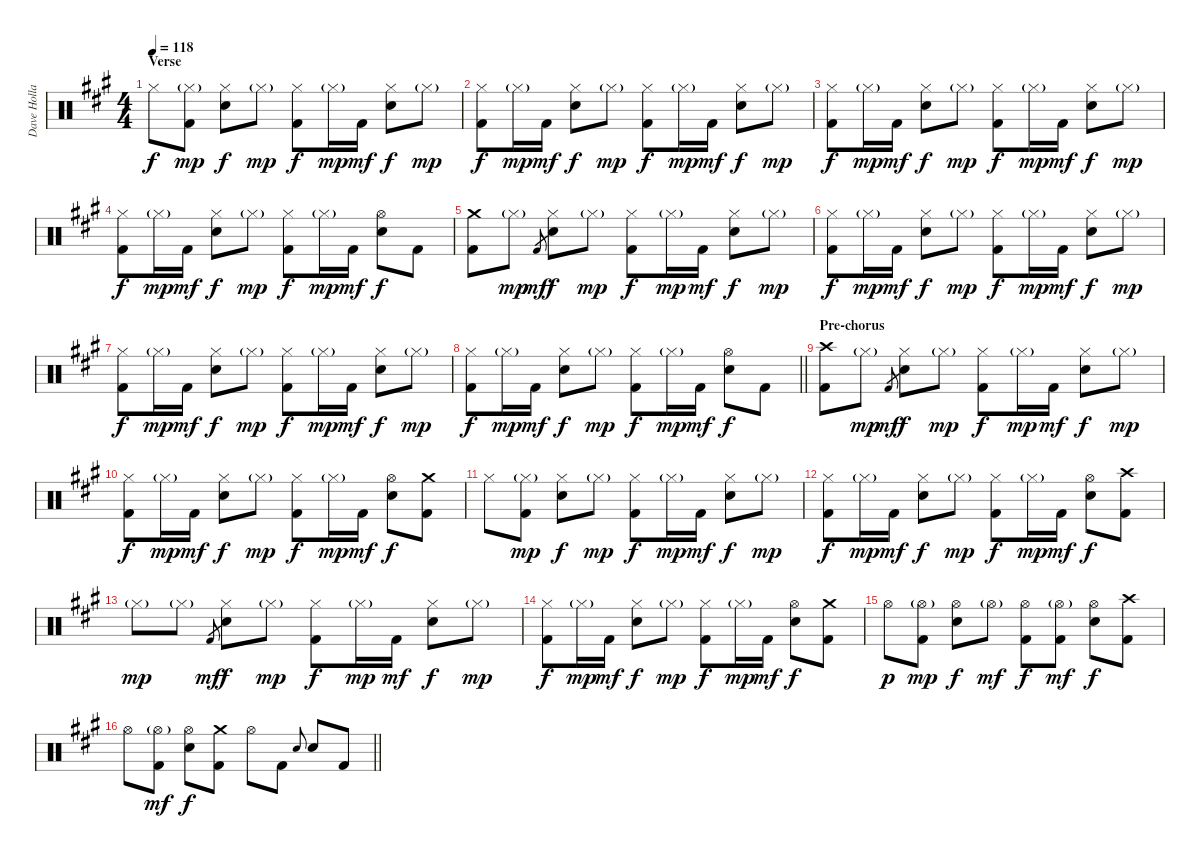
\track ("Dave Holland" "Dave Holla") {instrument percussion}
\staff {score}
\articulation defaults
\ts (4 4)
\section ("" "Verse")
\tempo 118
\clef neutral
\ks f#minor "Hi-Hat (closed)".8{dy f}
("Hi-Hat (closed)"{g} "Kick (hit) 2").8{dy mp} ("Hi-Hat (closed)" "Snare (hit) 2").8{dy f} "Hi-Hat (closed)"{g}.8{dy mp} ("Hi-Hat (closed)" "Kick (hit) 2").8{dy f} "Hi-Hat (closed)"{g}.16{dy mp} "Kick (hit) 2".16{dy mf} ("Hi-Hat (closed)" "Snare (hit) 2").8{dy f} "Hi-Hat (closed)"{g}.8{dy mp} |
("Hi-Hat (closed)" "Kick (hit) 2").8{dy f} "Hi-Hat (closed)"{g}.16{dy mp} "Kick (hit) 2".16{dy mf} ("Hi-Hat (closed)" "Snare (hit) 2").8{dy f} "Hi-Hat (closed)"{g}.8{dy mp} ("Hi-Hat (closed)" "Kick (hit) 2").8{dy f} "Hi-Hat (closed)"{g}.16{dy mp} "Kick (hit) 2".16{dy mf} ("Hi-Hat (closed)" "Snare (hit) 2").8{dy f} "Hi-Hat (closed)"{g}.8{dy mp} |
("Hi-Hat (closed)" "Kick (hit) 2").8{dy f} "Hi-Hat (closed)"{g}.16{dy mp} "Kick (hit) 2".16{dy mf} ("Hi-Hat (closed)" "Snare (hit) 2").8{dy f} "Hi-Hat (closed)"{g}.8{dy mp} ("Hi-Hat (closed)" "Kick (hit) 2").8{dy f} "Hi-Hat (closed)"{g}.16{dy mp} "Kick (hit) 2".16{dy mf} ("Hi-Hat (closed)" "Snare (hit) 2").8{dy f} "Hi-Hat (closed)"{g}.8{dy mp} |
("Hi-Hat (closed)" "Kick (hit) 2").8{dy f} "Hi-Hat (closed)"{g}.16{dy mp} "Kick (hit) 2".16{dy mf} ("Hi-Hat (closed)" "Snare (hit) 2").8{dy f} "Hi-Hat (closed)"{g}.8{dy mp} ("Hi-Hat (closed)" "Kick (hit) 2").8{dy f} "Hi-Hat (closed)"{g}.16{dy mp} "Kick (hit) 2".16{dy mf} ("Hi-Hat (open)" "Snare (hit) 2").8{dy f} "Kick (hit) 2".8 |
("Crash medium (hit)" "Kick (hit) 2").8 "Hi-Hat (closed)"{g}.8{dy mp} "Kick (hit) 2".8{gr dy mf} ("Hi-Hat (closed)" "Snare (hit) 2").8{dy f} "Hi-Hat (closed)"{g}.8{dy mp} ("Hi-Hat (closed)" "Kick (hit) 2").8{dy f} "Hi-Hat (closed)"{g}.16{dy mp} "Kick (hit) 2".16{dy mf} ("Hi-Hat (closed)" "Snare (hit) 2").8{dy f} "Hi-Hat (closed)"{g}.8{dy mp} |
("Hi-Hat (closed)" "Kick (hit) 2").8{dy f} "Hi-Hat (closed)"{g}.16{dy mp} "Kick (hit) 2".16{dy mf} ("Hi-Hat (closed)" "Snare (hit) 2").8{dy f} "Hi-Hat (closed)"{g}.8{dy mp} ("Hi-Hat (closed)" "Kick (hit) 2").8{dy f} "Hi-Hat (closed)"{g}.16{dy mp} "Kick (hit) 2".16{dy mf} ("Hi-Hat (closed)" "Snare (hit) 2").8{dy f} "Hi-Hat (closed)"{g}.8{dy mp} |
("Hi-Hat (closed)" "Kick (hit) 2").8{dy f} "Hi-Hat (closed)"{g}.16{dy mp} "Kick (hit) 2".16{dy mf} ("Hi-Hat (closed)" "Snare (hit) 2").8{dy f} "Hi-Hat (closed)"{g}.8{dy mp} ("Hi-Hat (closed)" "Kick (hit) 2").8{dy f} "Hi-Hat (closed)"{g}.16{dy mp} "Kick (hit) 2".16{dy mf} ("Hi-Hat (closed)" "Snare (hit) 2").8{dy f} "Hi-Hat (closed)"{g}.8{dy mp} |
\barLineRight lightlight
("Hi-Hat (closed)" "Kick (hit) 2").8{dy f} "Hi-Hat (closed)"{g}.16{dy mp} "Kick (hit) 2".16{dy mf} ("Hi-Hat (closed)" "Snare (hit) 2").8{dy f} "Hi-Hat (closed)"{g}.8{dy mp} ("Hi-Hat (closed)" "Kick (hit) 2").8{dy f} "Hi-Hat (closed)"{g}.16{dy mp} "Kick (hit) 2".16{dy mf} ("Hi-Hat (open)" "Snare (hit) 2").8{dy f} "Kick (hit) 2".8 |
\section ("" "Pre-chorus")
("Crash high (hit)" "Kick (hit) 2").8 "Hi-Hat (closed)"{g}.8{dy mp} "Kick (hit) 2".8{gr dy mf} ("Hi-Hat (closed)" "Snare (hit) 2").8{dy f} "Hi-Hat (closed)"{g}.8{dy mp} ("Hi-Hat (closed)" "Kick (hit) 2").8{dy f} "Hi-Hat (closed)"{g}.16{dy mp} "Kick (hit) 2".16{dy mf} ("Hi-Hat (closed)" "Snare (hit) 2").8{dy f} "Hi-Hat (closed)"{g}.8{dy mp} |
("Hi-Hat (closed)" "Kick (hit) 2").8{dy f} "Hi-Hat (closed)"{g}.16{dy mp} "Kick (hit) 2".16{dy mf} ("Hi-Hat (closed)" "Snare (hit) 2").8{dy f} "Hi-Hat (closed)"{g}.8{dy mp} ("Hi-Hat (closed)" "Kick (hit) 2").8{dy f} "Hi-Hat (closed)"{g}.16{dy mp} "Kick (hit) 2".16{dy mf} ("Hi-Hat (open)" "Snare (hit) 2").8{dy f} ("Crash medium (hit)" "Kick (hit) 2").8 |
"Hi-Hat (closed)".8 ("Hi-Hat (closed)"{g} "Kick (hit) 2").8{dy mp} ("Hi-Hat (closed)" "Snare (hit) 2").8{dy f} "Hi-Hat (closed)"{g}.8{dy mp} ("Hi-Hat (closed)" "Kick (hit) 2").8{dy f} "Hi-Hat (closed)"{g}.16{dy mp} "Kick (hit) 2".16{dy mf} ("Hi-Hat (closed)" "Snare (hit) 2").8{dy f} "Hi-Hat (closed)"{g}.8{dy mp} |
("Hi-Hat (closed)" "Kick (hit) 2").8{dy f} "Hi-Hat (closed)"{g}.16{dy mp} "Kick (hit) 2".16{dy mf} ("Hi-Hat (closed)" "Snare (hit) 2").8{dy f} "Hi-Hat (closed)"{g}.8{dy mp} ("Hi-Hat (closed)" "Kick (hit) 2").8{dy f} "Hi-Hat (closed)"{g}.16{dy mp} "Kick (hit) 2".16{dy mf} ("Hi-Hat (open)" "Snare (hit) 2").8{dy f} ("Crash high (hit)" "Kick (hit) 2").8 |
"Hi-Hat (closed)"{g}.8{dy mp} "Hi-Hat (closed)"{g}.8 "Kick (hit) 2".8{gr dy mf} ("Hi-Hat (closed)" "Snare (hit) 2").8{dy f} "Hi-Hat (closed)"{g}.8{dy mp} ("Hi-Hat (closed)" "Kick (hit) 2").8{dy f} "Hi-Hat (closed)"{g}.16{dy mp} "Kick (hit) 2".16{dy mf} ("Hi-Hat (closed)" "Snare (hit) 2").8{dy f} "Hi-Hat (closed)"{g}.8{dy mp} |
("Hi-Hat (closed)" "Kick (hit) 2").8{dy f} "Hi-Hat (closed)"{g}.16{dy mp} "Kick (hit) 2".16{dy mf} ("Hi-Hat (closed)" "Snare (hit) 2").8{dy f} "Hi-Hat (closed)"{g}.8{dy mp} ("Hi-Hat (closed)" "Kick (hit) 2").8{dy f} "Hi-Hat (closed)"{g}.16{dy mp} "Kick (hit) 2".16{dy mf} ("Hi-Hat (open)" "Snare (hit) 2").8{dy f} ("Crash medium (hit)" "Kick (hit) 2").8 |
"Hi-Hat (open)".8{dy p} ("Hi-Hat (open)"{g} "Kick (hit) 2").8{dy mp} ("Hi-Hat (open)" "Snare (hit) 2").8{dy f} "Hi-Hat (open)"{g}.8{dy mf} ("Hi-Hat (open)" "Kick (hit) 2").8{dy f} ("Hi-Hat (open)"{g} "Kick (hit) 2").8{dy mf} ("Hi-Hat (open)" "Snare (hit) 2").8{dy f} ("Crash high (hit)" "Kick (hit) 2").8 |
\barLineRight lightlight "Hi-Hat (open)".8
("Hi-Hat (open)"{g} "Kick (hit) 2").8{dy mf} ("Hi-Hat (open)" "Snare (hit) 2").8{dy f} ("Crash medium (hit)" "Kick (hit) 2").8 "Hi-Hat (open)".8 "Kick (hit) 2".8 "Snare (hit) 2".8{gr onbeat} "Snare (hit) 2".8 "Kick (hit) 2".8
